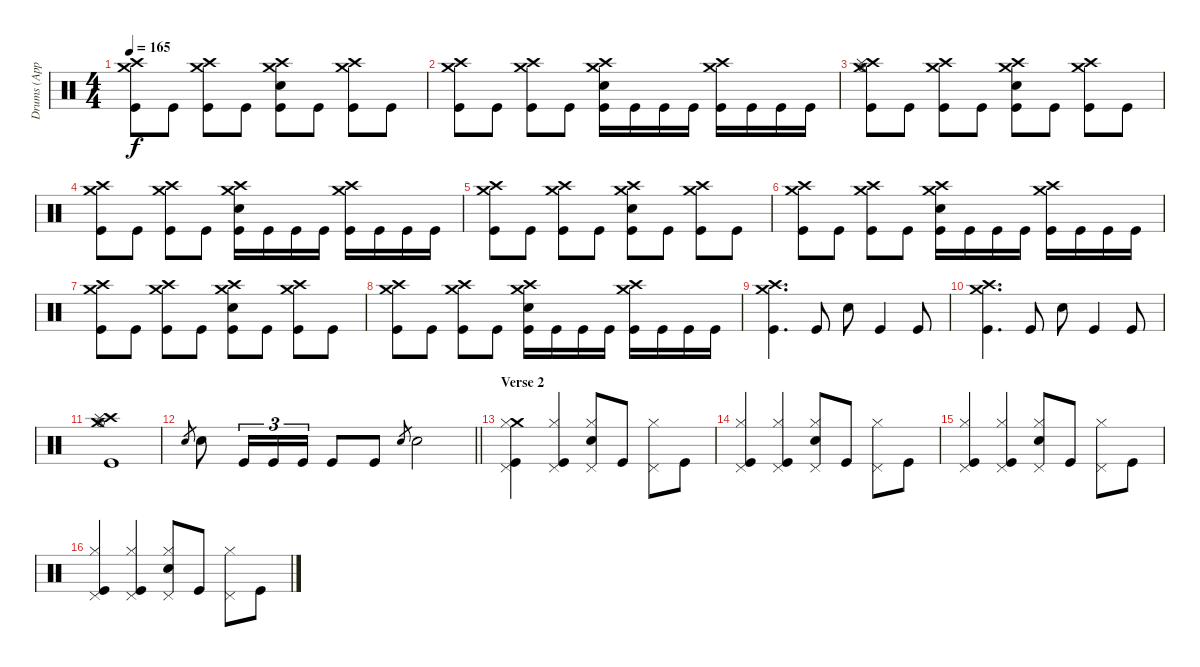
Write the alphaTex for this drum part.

\track ("Drums (Approx.)" "Drums (App") {instrument percussion}
\staff {score}
\articulation defaults
\ts (4 4)
\tempo 165
\clef neutral
\ks c
("Crash medium (hit)" "Crash high (hit)" "Kick (hit)").8{dy f} "Kick (hit)".8 ("Crash medium (hit)" "Crash high (hit)" "Kick (hit)").8 "Kick (hit)".8 ("Crash medium (hit)" "Crash high (hit)" "Electric Snare (hit)" "Kick (hit)").8 "Kick (hit)".8 ("Crash medium (hit)" "Crash high (hit)" "Kick (hit)").8 "Kick (hit)".8 |
("Crash medium (hit)" "Crash high (hit)" "Kick (hit)").8 "Kick (hit)".8 ("Crash medium (hit)" "Crash high (hit)" "Kick (hit)").8 "Kick (hit)".8 ("Crash medium (hit)" "Crash high (hit)" "Electric Snare (hit)" "Kick (hit)").16 "Kick (hit)".16 "Kick (hit)".16 "Kick (hit)".16 ("Crash medium (hit)" "Crash high (hit)" "Kick (hit)").16 "Kick (hit)".16 "Kick (hit)".16 "Kick (hit)".16 |
("Hi-Hat (open)" "Crash medium (hit)" "Crash high (hit)" "Splash (hit)" "Kick (hit)").8 "Kick (hit)".8 ("Crash medium (hit)" "Crash high (hit)" "Kick (hit)").8 "Kick (hit)".8 ("Crash medium (hit)" "Crash high (hit)" "Electric Snare (hit)" "Kick (hit)").8 "Kick (hit)".8 ("Crash medium (hit)" "Crash high (hit)" "Kick (hit)").8 "Kick (hit)".8 |
("Crash medium (hit)" "Crash high (hit)" "Kick (hit)").8 "Kick (hit)".8 ("Crash medium (hit)" "Crash high (hit)" "Kick (hit)").8 "Kick (hit)".8 ("Crash medium (hit)" "Crash high (hit)" "Electric Snare (hit)" "Kick (hit)").16 "Kick (hit)".16 "Kick (hit)".16 "Kick (hit)".16 ("Crash medium (hit)" "Crash high (hit)" "Kick (hit)").16 "Kick (hit)".16 "Kick (hit)".16 "Kick (hit)".16 |
("Crash medium (hit)" "Crash high (hit)" "Kick (hit)").8 "Kick (hit)".8 ("Crash medium (hit)" "Crash high (hit)" "Kick (hit)").8 "Kick (hit)".8 ("Crash medium (hit)" "Crash high (hit)" "Electric Snare (hit)" "Kick (hit)").8 "Kick (hit)".8 ("Crash medium (hit)" "Crash high (hit)" "Kick (hit)").8 "Kick (hit)".8 |
("Crash medium (hit)" "Crash high (hit)" "Kick (hit)").8 "Kick (hit)".8 ("Crash medium (hit)" "Crash high (hit)" "Kick (hit)").8 "Kick (hit)".8 ("Crash medium (hit)" "Crash high (hit)" "Electric Snare (hit)" "Kick (hit)").16 "Kick (hit)".16 "Kick (hit)".16 "Kick (hit)".16 ("Crash medium (hit)" "Crash high (hit)" "Kick (hit)").16 "Kick (hit)".16 "Kick (hit)".16 "Kick (hit)".16 |
("Crash medium (hit)" "Crash high (hit)" "Kick (hit)").8 "Kick (hit)".8 ("Crash medium (hit)" "Crash high (hit)" "Kick (hit)").8 "Kick (hit)".8 ("Crash medium (hit)" "Crash high (hit)" "Electric Snare (hit)" "Kick (hit)").8 "Kick (hit)".8 ("Crash medium (hit)" "Crash high (hit)" "Kick (hit)").8 "Kick (hit)".8 |
("Crash medium (hit)" "Crash high (hit)" "Kick (hit)").8 "Kick (hit)".8 ("Crash medium (hit)" "Crash high (hit)" "Kick (hit)").8 "Kick (hit)".8 ("Crash medium (hit)" "Crash high (hit)" "Electric Snare (hit)" "Kick (hit)").16 "Kick (hit)".16 "Kick (hit)".16 "Kick (hit)".16 ("Crash medium (hit)" "Crash high (hit)" "Kick (hit)").16 "Kick (hit)".16 "Kick (hit)".16 "Kick (hit)".16 |
("Crash medium (hit)" "Crash high (hit)" "Kick (hit)").4{d} "Kick (hit)".8 "Electric Snare (hit)".8 "Kick (hit)".4 "Kick (hit)".8 |
("Crash medium (hit)" "Crash high (hit)" "Kick (hit)").4{d} "Kick (hit)".8 "Electric Snare (hit)".8 "Kick (hit)".4 "Kick (hit)".8 |
("Crash high (hit)" "Crash medium (hit)" "Hi-Hat (open)" "Splash (hit)" "Kick (hit)").1 |
\barLineRight lightlight "Electric Snare (hit)".8{gr} "Electric Snare (hit)".8 "Kick (hit)".16{tu (3 2)} "Kick (hit)".16{tu (3 2)} "Kick (hit)".16{tu (3 2)} "Kick (hit)".8 "Kick (hit)".8 "Electric Snare (hit)".8{gr} "Electric Snare (hit)".2
|
\section ("" "Verse 2")
("Crash medium (hit)" "Hi-Hat (closed)" "Pedal Hi-Hat (hit)" "Kick (hit)").4 ("Hi-Hat (closed)" "Pedal Hi-Hat (hit)" "Kick (hit)").4 ("Hi-Hat (closed)" "Pedal Hi-Hat (hit)" "Electric Snare (hit)").8 "Kick (hit)".8 ("Hi-Hat (closed)" "Pedal Hi-Hat (hit)").8 "Kick (hit)".8 |
("Hi-Hat (closed)" "Pedal Hi-Hat (hit)" "Kick (hit)").4 ("Hi-Hat (closed)" "Pedal Hi-Hat (hit)" "Kick (hit)").4 ("Hi-Hat (closed)" "Pedal Hi-Hat (hit)" "Electric Snare (hit)").8 "Kick (hit)".8 ("Hi-Hat (closed)" "Pedal Hi-Hat (hit)").8 "Kick (hit)".8 |
("Hi-Hat (closed)" "Pedal Hi-Hat (hit)" "Kick (hit)").4 ("Hi-Hat (closed)" "Pedal Hi-Hat (hit)" "Kick (hit)").4 ("Hi-Hat (closed)" "Pedal Hi-Hat (hit)" "Electric Snare (hit)").8 "Kick (hit)".8 ("Hi-Hat (closed)" "Pedal Hi-Hat (hit)").8 "Kick (hit)".8 |
("Hi-Hat (closed)" "Pedal Hi-Hat (hit)" "Kick (hit)").4 ("Hi-Hat (closed)" "Pedal Hi-Hat (hit)" "Kick (hit)").4 ("Hi-Hat (closed)" "Pedal Hi-Hat (hit)" "Electric Snare (hit)").8 "Kick (hit)".8 ("Hi-Hat (closed)" "Pedal Hi-Hat (hit)").8 "Kick (hit)".8
